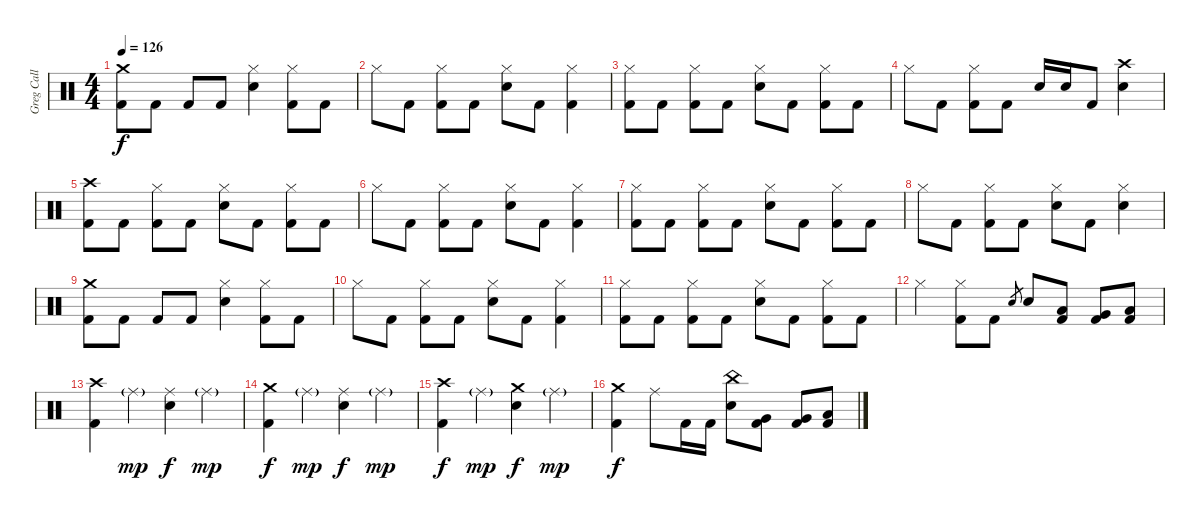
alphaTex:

\track ("Greg Call (Drums)" "Greg Call ") {instrument percussion}
\staff {score}
\articulation defaults
\ts (4 4)
\tempo 126
\clef neutral
\ks c
("Crash medium (hit)" "Kick (hit) 2").8{dy f} "Kick (hit) 2".8 "Kick (hit) 2".8 "Kick (hit) 2".8 ("Hi-Hat (closed)" "Snare (hit) 2").4 ("Hi-Hat (closed)" "Kick (hit) 2").8 "Kick (hit) 2".8 |
"Hi-Hat (closed)".8 "Kick (hit) 2".8 ("Hi-Hat (closed)" "Kick (hit) 2").8 "Kick (hit) 2".8 ("Hi-Hat (closed)" "Snare (hit) 2").8 "Kick (hit) 2".8 ("Hi-Hat (closed)" "Kick (hit) 2").4 |
("Hi-Hat (closed)" "Kick (hit) 2").8 "Kick (hit) 2".8 ("Hi-Hat (closed)" "Kick (hit) 2").8 "Kick (hit) 2".8 ("Hi-Hat (closed)" "Snare (hit) 2").8 "Kick (hit) 2".8 ("Hi-Hat (closed)" "Kick (hit) 2").8 "Kick (hit) 2".8 |
"Hi-Hat (closed)".8 "Kick (hit) 2".8 ("Hi-Hat (closed)" "Kick (hit) 2").8 "Kick (hit) 2".8 "Snare (hit) 2".16 "Snare (hit) 2".16 "Kick (hit) 2".8 ("Crash high (hit)" "Snare (hit) 2").4 |
("Crash high (hit)" "Kick (hit) 2").8 "Kick (hit) 2".8 ("Hi-Hat (closed)" "Kick (hit) 2").8 "Kick (hit) 2".8 ("Hi-Hat (closed)" "Snare (hit) 2").8 "Kick (hit) 2".8 ("Hi-Hat (closed)" "Kick (hit) 2").8 "Kick (hit) 2".8 |
"Hi-Hat (closed)".8 "Kick (hit) 2".8 ("Hi-Hat (closed)" "Kick (hit) 2").8 "Kick (hit) 2".8 ("Hi-Hat (closed)" "Snare (hit) 2").8 "Kick (hit) 2".8 ("Hi-Hat (closed)" "Kick (hit) 2").4 |
("Hi-Hat (closed)" "Kick (hit) 2").8 "Kick (hit) 2".8 ("Hi-Hat (closed)" "Kick (hit) 2").8 "Kick (hit) 2".8 ("Hi-Hat (closed)" "Snare (hit) 2").8 "Kick (hit) 2".8 ("Hi-Hat (closed)" "Kick (hit) 2").8 "Kick (hit) 2".8 |
"Hi-Hat (closed)".8 "Kick (hit) 2".8 ("Hi-Hat (closed)" "Kick (hit) 2").8 "Kick (hit) 2".8 ("Hi-Hat (closed)" "Snare (hit) 2").8 "Kick (hit) 2".8 ("Hi-Hat (closed)" "Snare (hit) 2").4 |
("Crash medium (hit)" "Kick (hit) 2").8 "Kick (hit) 2".8 "Kick (hit) 2".8 "Kick (hit) 2".8 ("Hi-Hat (closed)" "Snare (hit) 2").4 ("Hi-Hat (closed)" "Kick (hit) 2").8 "Kick (hit) 2".8 |
"Hi-Hat (closed)".8 "Kick (hit) 2".8 ("Hi-Hat (closed)" "Kick (hit) 2").8 "Kick (hit) 2".8 ("Hi-Hat (closed)" "Snare (hit) 2").8 "Kick (hit) 2".8 ("Hi-Hat (closed)" "Kick (hit) 2").4 |
("Hi-Hat (closed)" "Kick (hit) 2").8 "Kick (hit) 2".8 ("Hi-Hat (closed)" "Kick (hit) 2").8 "Kick (hit) 2".8 ("Hi-Hat (closed)" "Snare (hit) 2").8 "Kick (hit) 2".8 ("Hi-Hat (closed)" "Kick (hit) 2").8 "Kick (hit) 2".8 |
"Hi-Hat (closed)".4 ("Hi-Hat (closed)" "Kick (hit) 2").8 "Kick (hit) 2".8 "Snare (hit) 2".8{gr} "Snare (hit) 2".8 ("Low Tom (hit)" "Kick (hit) 2").8 ("Very Low Tom (hit)" "Kick (hit) 2").8 ("Low Floor Tom (hit)" "Kick (hit) 2").8 |
("Crash high (hit)" "Kick (hit) 2").4 "Ride (middle)"{g}.4{dy mp} ("Ride (middle)" "Snare (hit) 2").4{dy f} "Ride (middle)"{g}.4{dy mp} |
("Crash medium (hit)" "Kick (hit) 2").4{dy f} "Ride (middle)"{g}.4{dy mp} ("Ride (middle)" "Snare (hit) 2").4{dy f} "Ride (middle)"{g}.4{dy mp} |
("Crash high (hit)" "Kick (hit) 2").4{dy f} "Ride (middle)"{g}.4{dy mp} ("Crash medium (hit)" "Snare (hit) 2").4{dy f} "Ride (middle)"{g}.4{dy mp} |
("Crash medium (hit)" "Kick (hit) 2").4{dy f} "Ride (middle)".8 "Kick (hit) 2".16 "Kick (hit) 2".16 ("China (hit)" "Snare (hit) 2").8 ("Very Low Tom (hit)" "Kick (hit) 2").8 ("Very Low Tom (hit)" "Kick (hit) 2").8 ("Low Floor Tom (hit)" "Kick (hit) 2").8
